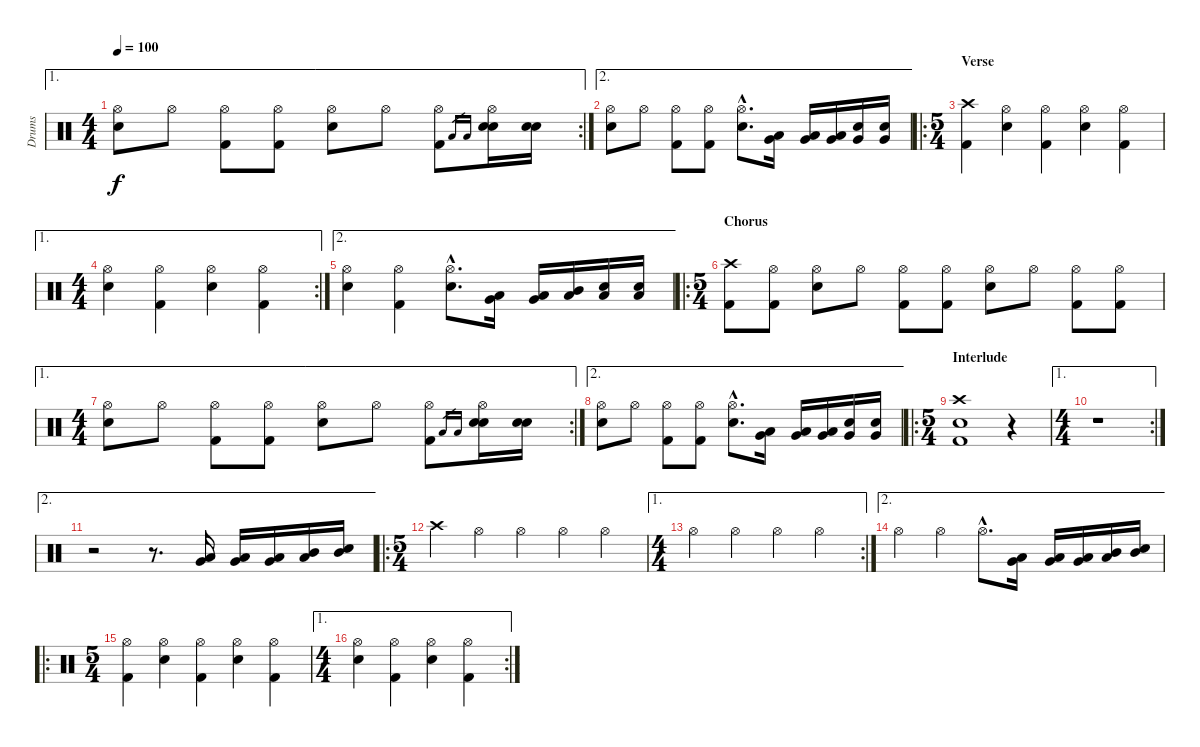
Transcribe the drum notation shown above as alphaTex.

\track ("Drums" "Drums") {instrument percussion}
\staff {score}
\articulation defaults
\ae 1
\rc 2
\ts (4 4)
\tempo 100
\clef neutral
\ks c
("Hi-Hat (open)" "Electric Snare (hit)").8{dy f} "Hi-Hat (open)".8 ("Hi-Hat (open)" "Kick (hit) 2").8 ("Hi-Hat (open)" "Kick (hit) 2").8 ("Hi-Hat (open)" "Electric Snare (hit)").8 "Hi-Hat (open)".8 ("Hi-Hat (open)" "Kick (hit) 2").8 "Low Floor Tom (hit)".16{gr} "Low Floor Tom (hit)".16{gr} ("Hi-Hat (open)" "Electric Snare (hit)" "Electric Snare (hit)").16 ("Electric Snare (hit)" "Electric Snare (hit)").16 |
\ae 2
("Hi-Hat (open)" "Electric Snare (hit)").8 "Hi-Hat (open)".8 ("Hi-Hat (open)" "Kick (hit) 2").8 ("Hi-Hat (open)" "Kick (hit) 2").8 ("Hi-Hat (open)"{hac} "Electric Snare (hit)"{hac}).8{d} ("Very Low Tom (hit)" "Low Floor Tom (hit)").16 ("Very Low Tom (hit)" "Low Floor Tom (hit)").16 ("Low Tom (hit)" "Very Low Tom (hit)").16 ("Very Low Tom (hit)" "Electric Snare (hit)").16 ("Very Low Tom (hit)" "Electric Snare (hit)").16 |
\ro
\ts (5 4)
\section ("" "Verse")
("Crash high (hit)" "Kick (hit) 2").4 ("Hi-Hat (open)" "Electric Snare (hit)").4 ("Hi-Hat (open)" "Kick (hit) 2").4 ("Hi-Hat (open)" "Electric Snare (hit)").4 ("Hi-Hat (open)" "Kick (hit) 2").4 |
\ae 1
\rc 2
\ts (4 4)
("Hi-Hat (open)" "Electric Snare (hit)").4 ("Hi-Hat (open)" "Kick (hit) 2").4 ("Hi-Hat (open)" "Electric Snare (hit)").4 ("Hi-Hat (open)" "Kick (hit) 2").4 |
\ae 2
("Hi-Hat (open)" "Electric Snare (hit)").4 ("Hi-Hat (open)" "Kick (hit) 2").4 ("Hi-Hat (open)"{hac} "Electric Snare (hit)"{hac}).8{d} ("Low Floor Tom (hit)" "Very Low Tom (hit)").16 ("Low Floor Tom (hit)" "Very Low Tom (hit)").16 ("Mid Tom (hit)" "Low Tom (hit)").16 ("Low Floor Tom (hit)" "Electric Snare (hit)").16 ("Low Floor Tom (hit)" "Electric Snare (hit)").16 |
\ro
\ts (5 4)
\section ("" "Chorus")
("Crash high (hit)" "Kick (hit) 2").8 ("Hi-Hat (open)" "Kick (hit) 2").8 ("Hi-Hat (open)" "Electric Snare (hit)").8 "Hi-Hat (open)".8 ("Hi-Hat (open)" "Kick (hit) 2").8 ("Hi-Hat (open)" "Kick (hit) 2").8 ("Hi-Hat (open)" "Electric Snare (hit)").8 "Hi-Hat (open)".8 ("Hi-Hat (open)" "Kick (hit) 2").8 ("Hi-Hat (open)" "Kick (hit) 2").8 |
\ae 1
\rc 2
\ts (4 4)
("Hi-Hat (open)" "Electric Snare (hit)").8 "Hi-Hat (open)".8 ("Hi-Hat (open)" "Kick (hit) 2").8 ("Hi-Hat (open)" "Kick (hit) 2").8 ("Hi-Hat (open)" "Electric Snare (hit)").8 "Hi-Hat (open)".8 ("Hi-Hat (open)" "Kick (hit) 2").8 "Low Floor Tom (hit)".16{gr} "Low Floor Tom (hit)".16{gr} ("Hi-Hat (open)" "Electric Snare (hit)" "Electric Snare (hit)").16 ("Electric Snare (hit)" "Electric Snare (hit)").16 |
\ae 2
("Hi-Hat (open)" "Electric Snare (hit)").8 "Hi-Hat (open)".8 ("Hi-Hat (open)" "Kick (hit) 2").8 ("Hi-Hat (open)" "Kick (hit) 2").8 ("Hi-Hat (open)"{hac} "Electric Snare (hit)"{hac}).8{d} ("Very Low Tom (hit)" "Low Floor Tom (hit)").16 ("Very Low Tom (hit)" "Low Floor Tom (hit)").16 ("Low Tom (hit)" "Very Low Tom (hit)").16 ("Very Low Tom (hit)" "Electric Snare (hit)").16 ("Very Low Tom (hit)" "Electric Snare (hit)").16 |
\ro
\ts (5 4)
\section ("" "Interlude")
("Crash high (hit)" "Kick (hit) 2" "Electric Snare (hit)").1 r.4 |
\ae 1
\rc 2
\ts (4 4)
r.1 |
\ae 2
r.2 r.8{d} ("Very Low Tom (hit)" "Low Floor Tom (hit)").16 ("Very Low Tom (hit)" "Low Floor Tom (hit)").16 ("Low Tom (hit)" "Very Low Tom (hit)").16 ("Mid Tom (hit)" "Low Tom (hit)").16 ("Electric Snare (hit)" "Mid Tom (hit)").16 |
\ro
\ts (5 4)
"Crash high (hit)".4 "Hi-Hat (open)".4 "Hi-Hat (open)".4 "Hi-Hat (open)".4 "Hi-Hat (open)".4 |
\ae 1
\rc 2
\ts (4 4)
"Hi-Hat (open)".4 "Hi-Hat (open)".4 "Hi-Hat (open)".4 "Hi-Hat (open)".4 |
\ae 2 "Hi-Hat (open)".4 "Hi-Hat (open)".4 "Hi-Hat (open)"{hac}.8{d}
("Very Low Tom (hit)" "Low Floor Tom (hit)").16 ("Very Low Tom (hit)" "Low Floor Tom (hit)").16 ("Low Tom (hit)" "Very Low Tom (hit)").16 ("Mid Tom (hit)" "Low Tom (hit)").16 ("Electric Snare (hit)" "Mid Tom (hit)").16 |
\ro
\ts (5 4)
("Hi-Hat (open)" "Kick (hit) 2").4 ("Hi-Hat (open)" "Electric Snare (hit)").4 ("Hi-Hat (open)" "Kick (hit) 2").4 ("Hi-Hat (open)" "Electric Snare (hit)").4 ("Hi-Hat (open)" "Kick (hit) 2").4 |
\ae 1
\rc 2
\ts (4 4)
("Hi-Hat (open)" "Electric Snare (hit)").4 ("Hi-Hat (open)" "Kick (hit) 2").4 ("Hi-Hat (open)" "Electric Snare (hit)").4 ("Hi-Hat (open)" "Kick (hit) 2").4
